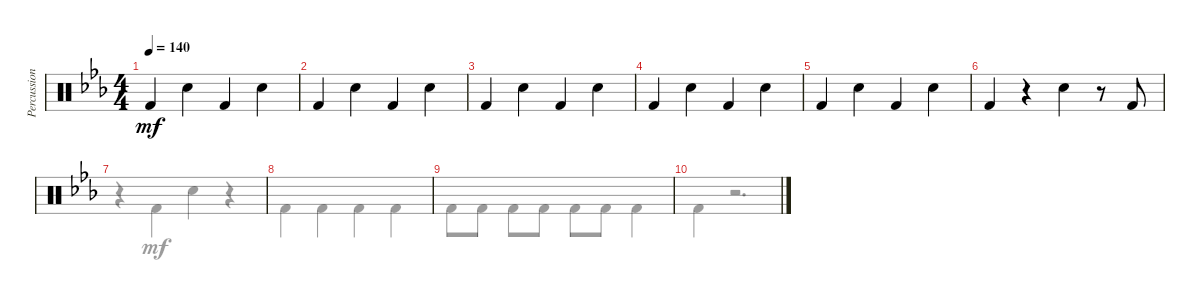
\track ("Percussions" "Percussion") {instrument percussion}
\staff {score}
\articulation defaults
\voice
\ts (4 4)
\tempo 140
\clef neutral
\ks cminor "Kick (hit) 2".4{dy mf} "Snare (hit) 2".4 "Kick (hit) 2".4 "Snare (hit) 2".4
|
"Kick (hit) 2".4 "Snare (hit) 2".4 "Kick (hit) 2".4 "Snare (hit) 2".4 |
"Kick (hit) 2".4 "Snare (hit) 2".4 "Kick (hit) 2".4 "Snare (hit) 2".4 |
"Kick (hit) 2".4 "Snare (hit) 2".4 "Kick (hit) 2".4 "Snare (hit) 2".4 |
"Kick (hit) 2".4 "Snare (hit) 2".4 "Kick (hit) 2".4 "Snare (hit) 2".4 |
"Kick (hit) 2".4 r.4 "Snare (hit) 2".4 r.8 "Kick (hit) 2".8 |
|
|
|
\voice
\clef neutral
\ottava regular
\simile none
\ks cminor
|
|
|
|
|
|
r.4 "Kick (hit) 2".4 "Snare (hit) 2".4 r.4 |
"Kick (hit) 2".4 "Kick (hit) 2".4 "Kick (hit) 2".4 "Kick (hit) 2".4 |
"Kick (hit) 2".8 "Kick (hit) 2".8 "Kick (hit) 2".8 "Kick (hit) 2".8 "Kick (hit) 2".8 "Kick (hit) 2".8 "Kick (hit) 2".4 |
"Kick (hit) 2".4 r.2{d}
